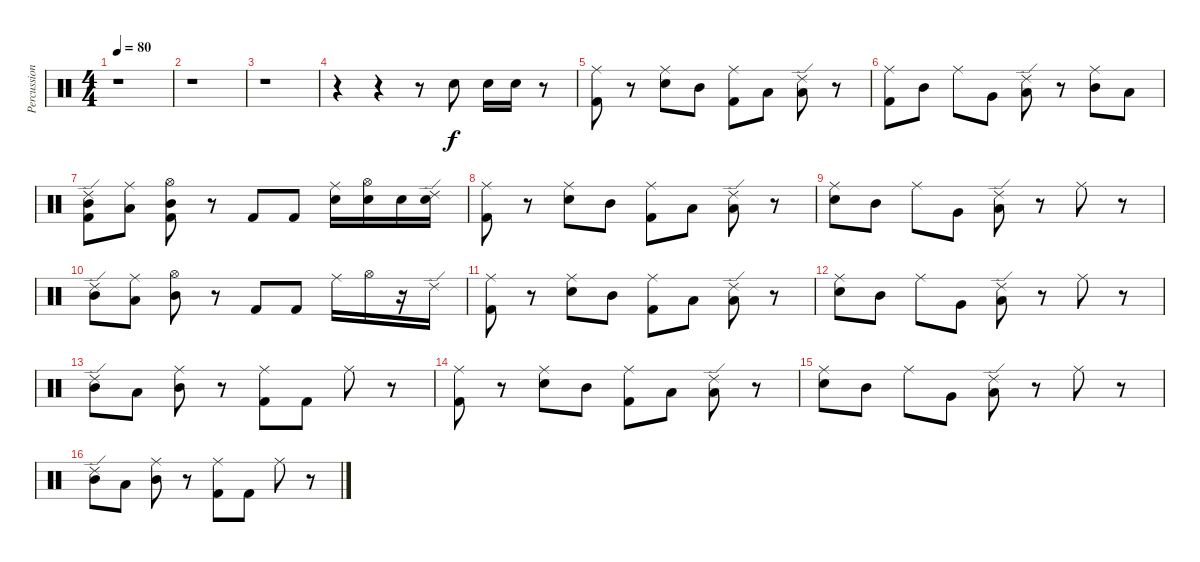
\track ("Percussion" "Percussion") {instrument percussion}
\staff {score}
\articulation defaults
\ts (4 4)
\tempo 80
\clef neutral
\ks c
r.1{dy pp} |
r.1 |
r.1 |
r.4 r.4 r.8 "Electric Snare (hit)".8{dy f} "Electric Snare (hit)".16 "Electric Snare (hit)".16 r.8 |
("Ride (middle)" "Kick (hit) 2").8 r.8 ("Ride (middle)" "Electric Snare (hit)").8 "Mid Tom (hit)".8 ("Ride (middle)" "Kick (hit) 2").8 "Low Tom (hit)".8 ("Ride (edge) 2" "Low Tom (hit)").8 r.8 |
("Ride (middle)" "Kick (hit) 2").8 "Mid Tom (hit)".8 "Ride (middle)".8 "Very Low Tom (hit)".8 ("Ride (edge) 2" "Low Tom (hit)").8 r.8 ("Ride (middle)" "Mid Tom (hit)").8 "Low Tom (hit)".8 |
("Ride (edge) 2" "Mid Tom (hit)" "Kick (hit) 2").8 ("Ride (middle)" "Low Tom (hit)").8 ("Hi-Hat (open)" "Mid Tom (hit)" "Kick (hit) 2").8 r.8 "Kick (hit) 2".8 "Kick (hit) 2".8 ("Ride (middle)" "Electric Snare (hit)").16 ("Hi-Hat (open)" "Electric Snare (hit)").16 "Electric Snare (hit)".16 ("Ride (edge) 2" "Electric Snare (hit)").16 |
("Ride (middle)" "Kick (hit) 2").8 r.8 ("Ride (middle)" "Electric Snare (hit)").8 "Mid Tom (hit)".8 ("Ride (middle)" "Kick (hit) 2").8 "Low Tom (hit)".8 ("Ride (edge) 2" "Low Tom (hit)").8 r.8 |
("Ride (middle)" "Electric Snare (hit)").8 "Mid Tom (hit)".8 "Ride (middle)".8 "Very Low Tom (hit)".8 ("Ride (edge) 2" "Low Tom (hit)").8 r.8 "Ride (middle)".8 r.8 |
("Ride (edge) 2" "Mid Tom (hit)").8 ("Ride (middle)" "Low Tom (hit)").8 ("Hi-Hat (open)" "Mid Tom (hit)").8 r.8 "Kick (hit) 2".8 "Kick (hit) 2".8 "Ride (middle)".16 "Hi-Hat (open)".16 r.16 "Ride (edge) 2".16 |
("Ride (middle)" "Kick (hit) 2").8 r.8 ("Ride (middle)" "Electric Snare (hit)").8 "Mid Tom (hit)".8 ("Ride (middle)" "Kick (hit) 2").8 "Low Tom (hit)".8 ("Ride (edge) 2" "Low Tom (hit)").8 r.8 |
("Ride (middle)" "Electric Snare (hit)").8 "Mid Tom (hit)".8 "Ride (middle)".8 "Very Low Tom (hit)".8 ("Ride (edge) 2" "Low Tom (hit)").8 r.8 "Ride (middle)".8 r.8 |
("Ride (edge) 2" "Mid Tom (hit)").8 "Low Tom (hit)".8 ("Ride (middle)" "Mid Tom (hit)").8 r.8 ("Ride (middle)" "Kick (hit) 2").8 "Kick (hit) 2".8 "Ride (middle)".8 r.8 |
("Ride (middle)" "Kick (hit) 2").8 r.8 ("Ride (middle)" "Electric Snare (hit)").8 "Mid Tom (hit)".8 ("Ride (middle)" "Kick (hit) 2").8 "Low Tom (hit)".8 ("Ride (edge) 2" "Low Tom (hit)").8 r.8 |
("Ride (middle)" "Electric Snare (hit)").8 "Mid Tom (hit)".8 "Ride (middle)".8 "Very Low Tom (hit)".8 ("Ride (edge) 2" "Low Tom (hit)").8 r.8 "Ride (middle)".8 r.8 |
("Ride (edge) 2" "Mid Tom (hit)").8 "Low Tom (hit)".8 ("Ride (middle)" "Mid Tom (hit)").8 r.8 ("Ride (middle)" "Kick (hit) 2").8 "Kick (hit) 2".8 "Ride (middle)".8 r.8
